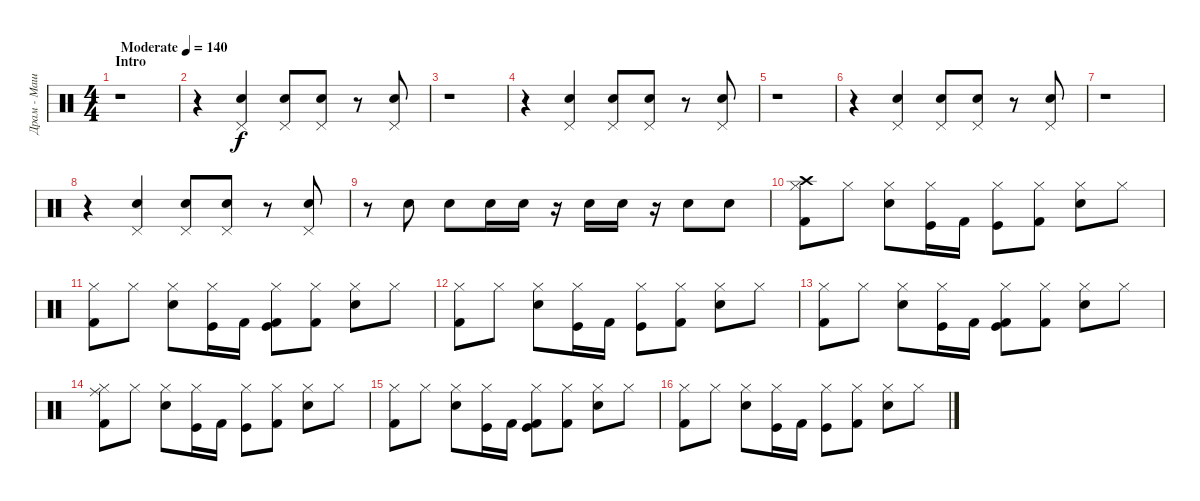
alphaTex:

\track ("Драм - Машина" "Драм - Маш") {instrument percussion}
\staff {score}
\articulation defaults
\ts (4 4)
\section ("" "Intro ")
\tempo (140 "Moderate")
\clef neutral
\ks c
r.1{dy f} |
r.4 ("Pedal Hi-Hat (hit)" "Snare (hit) 2").4 ("Pedal Hi-Hat (hit)" "Snare (hit) 2").8 ("Pedal Hi-Hat (hit)" "Snare (hit) 2").8 r.8 ("Pedal Hi-Hat (hit)" "Snare (hit) 2").8 |
r.1 |
r.4 ("Pedal Hi-Hat (hit)" "Snare (hit) 2").4 ("Pedal Hi-Hat (hit)" "Snare (hit) 2").8 ("Pedal Hi-Hat (hit)" "Snare (hit) 2").8 r.8 ("Pedal Hi-Hat (hit)" "Snare (hit) 2").8 |
r.1 |
r.4 ("Pedal Hi-Hat (hit)" "Snare (hit) 2").4 ("Pedal Hi-Hat (hit)" "Snare (hit) 2").8 ("Pedal Hi-Hat (hit)" "Snare (hit) 2").8 r.8 ("Pedal Hi-Hat (hit)" "Snare (hit) 2").8 |
r.1 |
r.4 ("Pedal Hi-Hat (hit)" "Snare (hit) 2").4 ("Pedal Hi-Hat (hit)" "Snare (hit) 2").8 ("Pedal Hi-Hat (hit)" "Snare (hit) 2").8 r.8 ("Pedal Hi-Hat (hit)" "Snare (hit) 2").8 |
r.8 "Electric Snare (hit)".8 "Electric Snare (hit)".8 "Snare (hit) 2".16 "Electric Snare (hit)".16 r.16 "Electric Snare (hit)".16 "Snare (hit) 2".16 r.16 "Electric Snare (hit)".8 "Electric Snare (hit)".8 |
("Crash high (hit)" "Hi-Hat (closed)" "Kick (hit) 2").8 "Hi-Hat (closed)".8 ("Hi-Hat (closed)" "Electric Snare (hit)").8 ("Hi-Hat (closed)" "Kick (hit)").16 "Kick (hit) 2".16 ("Hi-Hat (closed)" "Kick (hit)").8 ("Hi-Hat (closed)" "Kick (hit) 2").8 ("Hi-Hat (closed)" "Electric Snare (hit)").8 "Hi-Hat (closed)".8 |
("Hi-Hat (closed)" "Kick (hit) 2").8 "Hi-Hat (closed)".8 ("Hi-Hat (closed)" "Electric Snare (hit)").8 ("Hi-Hat (closed)" "Kick (hit)").16 "Kick (hit) 2".16 ("Kick (hit) 2" "Hi-Hat (closed)" "Kick (hit)").8 ("Hi-Hat (closed)" "Kick (hit) 2").8 ("Hi-Hat (closed)" "Electric Snare (hit)").8 "Hi-Hat (closed)".8 |
("Hi-Hat (closed)" "Kick (hit) 2").8 "Hi-Hat (closed)".8 ("Hi-Hat (closed)" "Electric Snare (hit)").8 ("Hi-Hat (closed)" "Kick (hit)").16 "Kick (hit) 2".16 ("Hi-Hat (closed)" "Kick (hit)").8 ("Hi-Hat (closed)" "Kick (hit) 2").8 ("Hi-Hat (closed)" "Electric Snare (hit)").8 "Hi-Hat (closed)".8 |
("Hi-Hat (closed)" "Kick (hit) 2").8 "Hi-Hat (closed)".8 ("Hi-Hat (closed)" "Electric Snare (hit)").8 ("Hi-Hat (closed)" "Kick (hit)").16 "Kick (hit) 2".16 ("Kick (hit) 2" "Hi-Hat (closed)" "Kick (hit)").8 ("Hi-Hat (closed)" "Kick (hit) 2").8 ("Hi-Hat (closed)" "Electric Snare (hit)").8 "Hi-Hat (closed)".8 |
("Ride (middle)" "Hi-Hat (closed)" "Kick (hit) 2").8 "Hi-Hat (closed)".8 ("Hi-Hat (closed)" "Electric Snare (hit)").8 ("Hi-Hat (closed)" "Kick (hit)").16 "Kick (hit) 2".16 ("Hi-Hat (closed)" "Kick (hit)").8 ("Hi-Hat (closed)" "Kick (hit) 2").8 ("Hi-Hat (closed)" "Electric Snare (hit)").8 "Hi-Hat (closed)".8 |
("Hi-Hat (closed)" "Kick (hit) 2").8 "Hi-Hat (closed)".8 ("Hi-Hat (closed)" "Electric Snare (hit)").8 ("Hi-Hat (closed)" "Kick (hit)").16 "Kick (hit) 2".16 ("Kick (hit) 2" "Hi-Hat (closed)" "Kick (hit)").8 ("Hi-Hat (closed)" "Kick (hit) 2").8 ("Hi-Hat (closed)" "Electric Snare (hit)").8 "Hi-Hat (closed)".8 |
("Hi-Hat (closed)" "Kick (hit) 2").8 "Hi-Hat (closed)".8 ("Hi-Hat (closed)" "Electric Snare (hit)").8 ("Hi-Hat (closed)" "Kick (hit)").16 "Kick (hit) 2".16 ("Hi-Hat (closed)" "Kick (hit)").8 ("Hi-Hat (closed)" "Kick (hit) 2").8 ("Hi-Hat (closed)" "Electric Snare (hit)").8 "Hi-Hat (closed)".8
